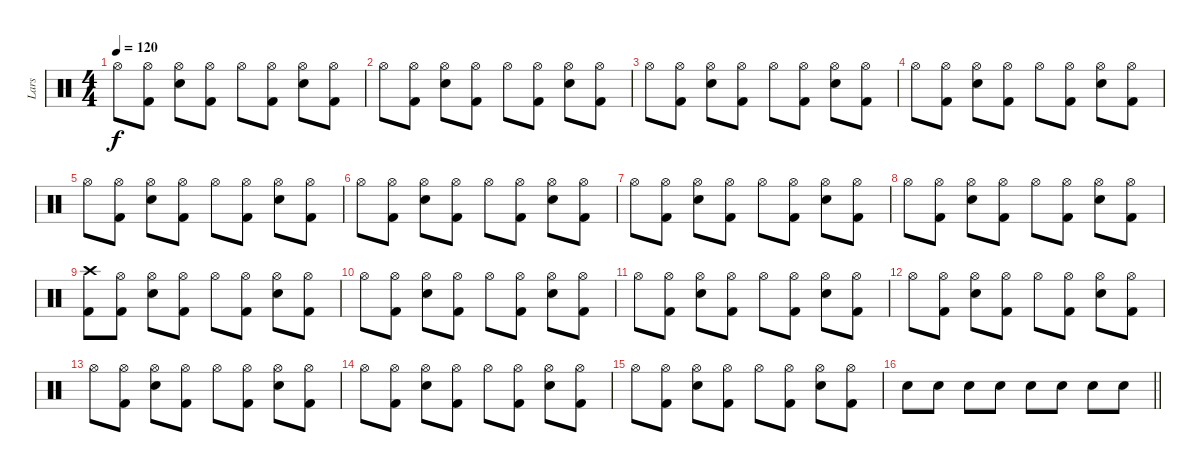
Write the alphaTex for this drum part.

\track ("Lars" "Lars") {instrument percussion}
\staff {score}
\articulation defaults
\ts (4 4)
\tempo 120
\clef neutral
\ks c "Hi-Hat (open)".8{dy f}
("Kick (hit) 2" "Hi-Hat (open)").8 ("Snare (hit) 2" "Hi-Hat (open)").8 ("Kick (hit) 2" "Hi-Hat (open)").8 "Hi-Hat (open)".8 ("Kick (hit) 2" "Hi-Hat (open)").8 ("Snare (hit) 2" "Hi-Hat (open)").8 ("Kick (hit) 2" "Hi-Hat (open)").8 |
"Hi-Hat (open)".8 ("Kick (hit) 2" "Hi-Hat (open)").8 ("Snare (hit) 2" "Hi-Hat (open)").8 ("Kick (hit) 2" "Hi-Hat (open)").8 "Hi-Hat (open)".8 ("Kick (hit) 2" "Hi-Hat (open)").8 ("Snare (hit) 2" "Hi-Hat (open)").8 ("Kick (hit) 2" "Hi-Hat (open)").8 |
"Hi-Hat (open)".8 ("Kick (hit) 2" "Hi-Hat (open)").8 ("Snare (hit) 2" "Hi-Hat (open)").8 ("Kick (hit) 2" "Hi-Hat (open)").8 "Hi-Hat (open)".8 ("Kick (hit) 2" "Hi-Hat (open)").8 ("Snare (hit) 2" "Hi-Hat (open)").8 ("Kick (hit) 2" "Hi-Hat (open)").8 |
"Hi-Hat (open)".8 ("Kick (hit) 2" "Hi-Hat (open)").8 ("Snare (hit) 2" "Hi-Hat (open)").8 ("Kick (hit) 2" "Hi-Hat (open)").8 "Hi-Hat (open)".8 ("Kick (hit) 2" "Hi-Hat (open)").8 ("Snare (hit) 2" "Hi-Hat (open)").8 ("Kick (hit) 2" "Hi-Hat (open)").8 |
"Hi-Hat (open)".8 ("Kick (hit) 2" "Hi-Hat (open)").8 ("Snare (hit) 2" "Hi-Hat (open)").8 ("Kick (hit) 2" "Hi-Hat (open)").8 "Hi-Hat (open)".8 ("Kick (hit) 2" "Hi-Hat (open)").8 ("Snare (hit) 2" "Hi-Hat (open)").8 ("Kick (hit) 2" "Hi-Hat (open)").8 |
"Hi-Hat (open)".8 ("Kick (hit) 2" "Hi-Hat (open)").8 ("Snare (hit) 2" "Hi-Hat (open)").8 ("Kick (hit) 2" "Hi-Hat (open)").8 "Hi-Hat (open)".8 ("Kick (hit) 2" "Hi-Hat (open)").8 ("Snare (hit) 2" "Hi-Hat (open)").8 ("Kick (hit) 2" "Hi-Hat (open)").8 |
"Hi-Hat (open)".8 ("Kick (hit) 2" "Hi-Hat (open)").8 ("Snare (hit) 2" "Hi-Hat (open)").8 ("Kick (hit) 2" "Hi-Hat (open)").8 "Hi-Hat (open)".8 ("Kick (hit) 2" "Hi-Hat (open)").8 ("Snare (hit) 2" "Hi-Hat (open)").8 ("Kick (hit) 2" "Hi-Hat (open)").8 |
"Hi-Hat (open)".8 ("Kick (hit) 2" "Hi-Hat (open)").8 ("Snare (hit) 2" "Hi-Hat (open)").8 ("Kick (hit) 2" "Hi-Hat (open)").8 "Hi-Hat (open)".8 ("Kick (hit) 2" "Hi-Hat (open)").8 ("Snare (hit) 2" "Hi-Hat (open)").8 ("Kick (hit) 2" "Hi-Hat (open)").8 |
("Kick (hit) 2" "Crash high (hit)").8 ("Kick (hit) 2" "Hi-Hat (open)").8 ("Snare (hit) 2" "Hi-Hat (open)").8 ("Kick (hit) 2" "Hi-Hat (open)").8 "Hi-Hat (open)".8 ("Kick (hit) 2" "Hi-Hat (open)").8 ("Snare (hit) 2" "Hi-Hat (open)").8 ("Kick (hit) 2" "Hi-Hat (open)").8 |
"Hi-Hat (open)".8 ("Kick (hit) 2" "Hi-Hat (open)").8 ("Snare (hit) 2" "Hi-Hat (open)").8 ("Kick (hit) 2" "Hi-Hat (open)").8 "Hi-Hat (open)".8 ("Kick (hit) 2" "Hi-Hat (open)").8 ("Snare (hit) 2" "Hi-Hat (open)").8 ("Kick (hit) 2" "Hi-Hat (open)").8 |
"Hi-Hat (open)".8 ("Kick (hit) 2" "Hi-Hat (open)").8 ("Snare (hit) 2" "Hi-Hat (open)").8 ("Kick (hit) 2" "Hi-Hat (open)").8 "Hi-Hat (open)".8 ("Kick (hit) 2" "Hi-Hat (open)").8 ("Snare (hit) 2" "Hi-Hat (open)").8 ("Kick (hit) 2" "Hi-Hat (open)").8 |
"Hi-Hat (open)".8 ("Kick (hit) 2" "Hi-Hat (open)").8 ("Snare (hit) 2" "Hi-Hat (open)").8 ("Kick (hit) 2" "Hi-Hat (open)").8 "Hi-Hat (open)".8 ("Kick (hit) 2" "Hi-Hat (open)").8 ("Snare (hit) 2" "Hi-Hat (open)").8 ("Kick (hit) 2" "Hi-Hat (open)").8 |
"Hi-Hat (open)".8 ("Kick (hit) 2" "Hi-Hat (open)").8 ("Snare (hit) 2" "Hi-Hat (open)").8 ("Kick (hit) 2" "Hi-Hat (open)").8 "Hi-Hat (open)".8 ("Kick (hit) 2" "Hi-Hat (open)").8 ("Snare (hit) 2" "Hi-Hat (open)").8 ("Kick (hit) 2" "Hi-Hat (open)").8 |
"Hi-Hat (open)".8 ("Kick (hit) 2" "Hi-Hat (open)").8 ("Snare (hit) 2" "Hi-Hat (open)").8 ("Kick (hit) 2" "Hi-Hat (open)").8 "Hi-Hat (open)".8 ("Kick (hit) 2" "Hi-Hat (open)").8 ("Snare (hit) 2" "Hi-Hat (open)").8 ("Kick (hit) 2" "Hi-Hat (open)").8 |
"Hi-Hat (open)".8 ("Kick (hit) 2" "Hi-Hat (open)").8 ("Snare (hit) 2" "Hi-Hat (open)").8 ("Kick (hit) 2" "Hi-Hat (open)").8 "Hi-Hat (open)".8 ("Kick (hit) 2" "Hi-Hat (open)").8 ("Snare (hit) 2" "Hi-Hat (open)").8 ("Kick (hit) 2" "Hi-Hat (open)").8 |
\barLineRight lightlight "Snare (hit) 2".8 "Snare (hit) 2".8 "Snare (hit) 2".8 "Snare (hit) 2".8 "Snare (hit) 2".8 "Snare (hit) 2".8 "Snare (hit) 2".8 "Snare (hit) 2".8
